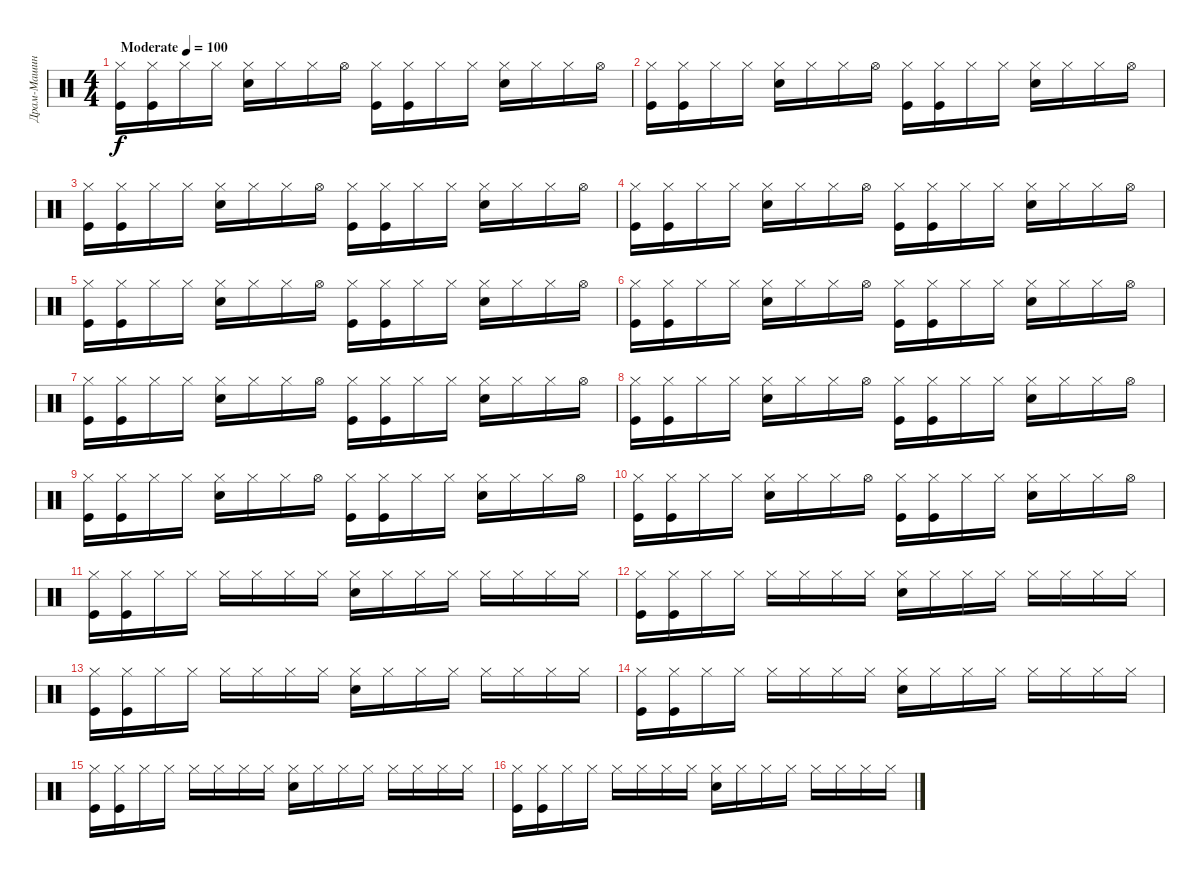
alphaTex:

\track ("Драм-Машина" "Драм-Машин") {instrument percussion}
\staff {score}
\articulation defaults
\ts (4 4)
\tempo (100 "Moderate")
\clef neutral
\ks c
("Kick (hit)" "Hi-Hat (closed)").16{dy f} ("Kick (hit)" "Hi-Hat (closed)").16 "Hi-Hat (closed)".16 "Hi-Hat (closed)".16 ("Hi-Hat (closed)" "Electric Snare (hit)").16 "Hi-Hat (closed)".16 "Hi-Hat (closed)".16 "Hi-Hat (open)".16 ("Kick (hit)" "Hi-Hat (closed)").16 ("Kick (hit)" "Hi-Hat (closed)").16 "Hi-Hat (closed)".16 "Hi-Hat (closed)".16 ("Hi-Hat (closed)" "Electric Snare (hit)").16 "Hi-Hat (closed)".16 "Hi-Hat (closed)".16 "Hi-Hat (open)".16 |
("Kick (hit)" "Hi-Hat (closed)").16 ("Kick (hit)" "Hi-Hat (closed)").16 "Hi-Hat (closed)".16 "Hi-Hat (closed)".16 ("Hi-Hat (closed)" "Electric Snare (hit)").16 "Hi-Hat (closed)".16 "Hi-Hat (closed)".16 "Hi-Hat (open)".16 ("Kick (hit)" "Hi-Hat (closed)").16 ("Kick (hit)" "Hi-Hat (closed)").16 "Hi-Hat (closed)".16 "Hi-Hat (closed)".16 ("Hi-Hat (closed)" "Electric Snare (hit)").16 "Hi-Hat (closed)".16 "Hi-Hat (closed)".16 "Hi-Hat (open)".16 |
("Kick (hit)" "Hi-Hat (closed)").16 ("Kick (hit)" "Hi-Hat (closed)").16 "Hi-Hat (closed)".16 "Hi-Hat (closed)".16 ("Hi-Hat (closed)" "Electric Snare (hit)").16 "Hi-Hat (closed)".16 "Hi-Hat (closed)".16 "Hi-Hat (open)".16 ("Kick (hit)" "Hi-Hat (closed)").16 ("Kick (hit)" "Hi-Hat (closed)").16 "Hi-Hat (closed)".16 "Hi-Hat (closed)".16 ("Hi-Hat (closed)" "Electric Snare (hit)").16 "Hi-Hat (closed)".16 "Hi-Hat (closed)".16 "Hi-Hat (open)".16 |
("Kick (hit)" "Hi-Hat (closed)").16 ("Kick (hit)" "Hi-Hat (closed)").16 "Hi-Hat (closed)".16 "Hi-Hat (closed)".16 ("Hi-Hat (closed)" "Electric Snare (hit)").16 "Hi-Hat (closed)".16 "Hi-Hat (closed)".16 "Hi-Hat (open)".16 ("Kick (hit)" "Hi-Hat (closed)").16 ("Kick (hit)" "Hi-Hat (closed)").16 "Hi-Hat (closed)".16 "Hi-Hat (closed)".16 ("Hi-Hat (closed)" "Electric Snare (hit)").16 "Hi-Hat (closed)".16 "Hi-Hat (closed)".16 "Hi-Hat (open)".16 |
("Kick (hit)" "Hi-Hat (closed)").16 ("Kick (hit)" "Hi-Hat (closed)").16 "Hi-Hat (closed)".16 "Hi-Hat (closed)".16 ("Hi-Hat (closed)" "Electric Snare (hit)").16 "Hi-Hat (closed)".16 "Hi-Hat (closed)".16 "Hi-Hat (open)".16 ("Kick (hit)" "Hi-Hat (closed)").16 ("Kick (hit)" "Hi-Hat (closed)").16 "Hi-Hat (closed)".16 "Hi-Hat (closed)".16 ("Hi-Hat (closed)" "Electric Snare (hit)").16 "Hi-Hat (closed)".16 "Hi-Hat (closed)".16 "Hi-Hat (open)".16 |
("Kick (hit)" "Hi-Hat (closed)").16 ("Kick (hit)" "Hi-Hat (closed)").16 "Hi-Hat (closed)".16 "Hi-Hat (closed)".16 ("Hi-Hat (closed)" "Electric Snare (hit)").16 "Hi-Hat (closed)".16 "Hi-Hat (closed)".16 "Hi-Hat (open)".16 ("Kick (hit)" "Hi-Hat (closed)").16 ("Kick (hit)" "Hi-Hat (closed)").16 "Hi-Hat (closed)".16 "Hi-Hat (closed)".16 ("Hi-Hat (closed)" "Electric Snare (hit)").16 "Hi-Hat (closed)".16 "Hi-Hat (closed)".16 "Hi-Hat (open)".16 |
("Kick (hit)" "Hi-Hat (closed)").16 ("Kick (hit)" "Hi-Hat (closed)").16 "Hi-Hat (closed)".16 "Hi-Hat (closed)".16 ("Hi-Hat (closed)" "Electric Snare (hit)").16 "Hi-Hat (closed)".16 "Hi-Hat (closed)".16 "Hi-Hat (open)".16 ("Kick (hit)" "Hi-Hat (closed)").16 ("Kick (hit)" "Hi-Hat (closed)").16 "Hi-Hat (closed)".16 "Hi-Hat (closed)".16 ("Hi-Hat (closed)" "Electric Snare (hit)").16 "Hi-Hat (closed)".16 "Hi-Hat (closed)".16 "Hi-Hat (open)".16 |
("Kick (hit)" "Hi-Hat (closed)").16 ("Kick (hit)" "Hi-Hat (closed)").16 "Hi-Hat (closed)".16 "Hi-Hat (closed)".16 ("Hi-Hat (closed)" "Electric Snare (hit)").16 "Hi-Hat (closed)".16 "Hi-Hat (closed)".16 "Hi-Hat (open)".16 ("Kick (hit)" "Hi-Hat (closed)").16 ("Kick (hit)" "Hi-Hat (closed)").16 "Hi-Hat (closed)".16 "Hi-Hat (closed)".16 ("Hi-Hat (closed)" "Electric Snare (hit)").16 "Hi-Hat (closed)".16 "Hi-Hat (closed)".16 "Hi-Hat (open)".16 |
("Kick (hit)" "Hi-Hat (closed)").16 ("Kick (hit)" "Hi-Hat (closed)").16 "Hi-Hat (closed)".16 "Hi-Hat (closed)".16 ("Hi-Hat (closed)" "Electric Snare (hit)").16 "Hi-Hat (closed)".16 "Hi-Hat (closed)".16 "Hi-Hat (open)".16 ("Kick (hit)" "Hi-Hat (closed)").16 ("Kick (hit)" "Hi-Hat (closed)").16 "Hi-Hat (closed)".16 "Hi-Hat (closed)".16 ("Hi-Hat (closed)" "Electric Snare (hit)").16 "Hi-Hat (closed)".16 "Hi-Hat (closed)".16 "Hi-Hat (open)".16 |
("Kick (hit)" "Hi-Hat (closed)").16 ("Kick (hit)" "Hi-Hat (closed)").16 "Hi-Hat (closed)".16 "Hi-Hat (closed)".16 ("Hi-Hat (closed)" "Electric Snare (hit)").16 "Hi-Hat (closed)".16 "Hi-Hat (closed)".16 "Hi-Hat (open)".16 ("Kick (hit)" "Hi-Hat (closed)").16 ("Kick (hit)" "Hi-Hat (closed)").16 "Hi-Hat (closed)".16 "Hi-Hat (closed)".16 ("Hi-Hat (closed)" "Electric Snare (hit)").16 "Hi-Hat (closed)".16 "Hi-Hat (closed)".16 "Hi-Hat (open)".16 |
("Kick (hit)" "Hi-Hat (closed)").16 ("Kick (hit)" "Hi-Hat (closed)").16 "Hi-Hat (closed)".16 "Hi-Hat (closed)".16 "Hi-Hat (closed)".16 "Hi-Hat (closed)".16 "Hi-Hat (closed)".16 "Hi-Hat (closed)".16 ("Electric Snare (hit)" "Hi-Hat (closed)").16 "Hi-Hat (closed)".16 "Hi-Hat (closed)".16 "Hi-Hat (closed)".16 "Hi-Hat (closed)".16 "Hi-Hat (closed)".16 "Hi-Hat (closed)".16 "Hi-Hat (closed)".16 |
("Kick (hit)" "Hi-Hat (closed)").16 ("Kick (hit)" "Hi-Hat (closed)").16 "Hi-Hat (closed)".16 "Hi-Hat (closed)".16 "Hi-Hat (closed)".16 "Hi-Hat (closed)".16 "Hi-Hat (closed)".16 "Hi-Hat (closed)".16 ("Electric Snare (hit)" "Hi-Hat (closed)").16 "Hi-Hat (closed)".16 "Hi-Hat (closed)".16 "Hi-Hat (closed)".16 "Hi-Hat (closed)".16 "Hi-Hat (closed)".16 "Hi-Hat (closed)".16 "Hi-Hat (closed)".16 |
("Kick (hit)" "Hi-Hat (closed)").16 ("Kick (hit)" "Hi-Hat (closed)").16 "Hi-Hat (closed)".16 "Hi-Hat (closed)".16 "Hi-Hat (closed)".16 "Hi-Hat (closed)".16 "Hi-Hat (closed)".16 "Hi-Hat (closed)".16 ("Electric Snare (hit)" "Hi-Hat (closed)").16 "Hi-Hat (closed)".16 "Hi-Hat (closed)".16 "Hi-Hat (closed)".16 "Hi-Hat (closed)".16 "Hi-Hat (closed)".16 "Hi-Hat (closed)".16 "Hi-Hat (closed)".16 |
("Kick (hit)" "Hi-Hat (closed)").16 ("Kick (hit)" "Hi-Hat (closed)").16 "Hi-Hat (closed)".16 "Hi-Hat (closed)".16 "Hi-Hat (closed)".16 "Hi-Hat (closed)".16 "Hi-Hat (closed)".16 "Hi-Hat (closed)".16 ("Electric Snare (hit)" "Hi-Hat (closed)").16 "Hi-Hat (closed)".16 "Hi-Hat (closed)".16 "Hi-Hat (closed)".16 "Hi-Hat (closed)".16 "Hi-Hat (closed)".16 "Hi-Hat (closed)".16 "Hi-Hat (closed)".16 |
("Kick (hit)" "Hi-Hat (closed)").16 ("Kick (hit)" "Hi-Hat (closed)").16 "Hi-Hat (closed)".16 "Hi-Hat (closed)".16 "Hi-Hat (closed)".16 "Hi-Hat (closed)".16 "Hi-Hat (closed)".16 "Hi-Hat (closed)".16 ("Electric Snare (hit)" "Hi-Hat (closed)").16 "Hi-Hat (closed)".16 "Hi-Hat (closed)".16 "Hi-Hat (closed)".16 "Hi-Hat (closed)".16 "Hi-Hat (closed)".16 "Hi-Hat (closed)".16 "Hi-Hat (closed)".16 |
("Kick (hit)" "Hi-Hat (closed)").16 ("Kick (hit)" "Hi-Hat (closed)").16 "Hi-Hat (closed)".16 "Hi-Hat (closed)".16 "Hi-Hat (closed)".16 "Hi-Hat (closed)".16 "Hi-Hat (closed)".16 "Hi-Hat (closed)".16 ("Electric Snare (hit)" "Hi-Hat (closed)").16 "Hi-Hat (closed)".16 "Hi-Hat (closed)".16 "Hi-Hat (closed)".16 "Hi-Hat (closed)".16 "Hi-Hat (closed)".16 "Hi-Hat (closed)".16 "Hi-Hat (closed)".16
